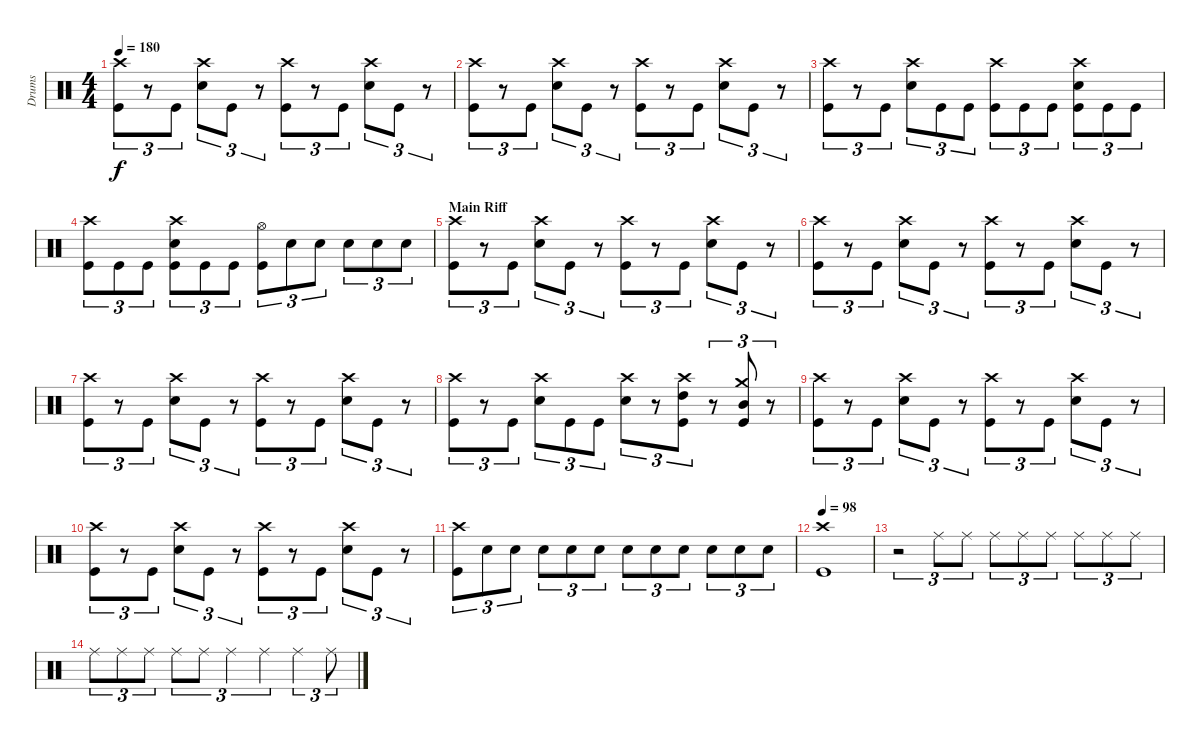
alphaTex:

\track ("Drums" "Drums") {instrument percussion}
\staff {score}
\articulation defaults
\ts (4 4)
\tempo 180
\clef neutral
\ks c
("Crash high (hit)" "Kick (hit)").8{tu (3 2) dy f} r.8{tu (3 2)} "Kick (hit)".8{tu (3 2)} ("Crash high (hit)" "Snare (hit) 2").8{tu (3 2)} "Kick (hit)".8{tu (3 2)} r.8{tu (3 2)} ("Crash high (hit)" "Kick (hit)").8{tu (3 2)} r.8{tu (3 2)} "Kick (hit)".8{tu (3 2)} ("Crash high (hit)" "Snare (hit) 2").8{tu (3 2)} "Kick (hit)".8{tu (3 2)} r.8{tu (3 2)} |
("Crash high (hit)" "Kick (hit)").8{tu (3 2)} r.8{tu (3 2)} "Kick (hit)".8{tu (3 2)} ("Crash high (hit)" "Snare (hit) 2").8{tu (3 2)} "Kick (hit)".8{tu (3 2)} r.8{tu (3 2)} ("Crash high (hit)" "Kick (hit)").8{tu (3 2)} r.8{tu (3 2)} "Kick (hit)".8{tu (3 2)} ("Crash high (hit)" "Snare (hit) 2").8{tu (3 2)} "Kick (hit)".8{tu (3 2)} r.8{tu (3 2)} |
("Crash high (hit)" "Kick (hit)").8{tu (3 2)} r.8{tu (3 2)} "Kick (hit)".8{tu (3 2)} ("Crash high (hit)" "Snare (hit) 2").8{tu (3 2)} "Kick (hit)".8{tu (3 2)} "Kick (hit)".8{tu (3 2)} ("Crash high (hit)" "Kick (hit)").8{tu (3 2)} "Kick (hit)".8{tu (3 2)} "Kick (hit)".8{tu (3 2)} ("Crash high (hit)" "Snare (hit) 2" "Kick (hit)").8{tu (3 2)} "Kick (hit)".8{tu (3 2)} "Kick (hit)".8{tu (3 2)} |
("Crash high (hit)" "Kick (hit)").8{tu (3 2)} "Kick (hit)".8{tu (3 2)} "Kick (hit)".8{tu (3 2)} ("Crash high (hit)" "Snare (hit) 2" "Kick (hit)").8{tu (3 2)} "Kick (hit)".8{tu (3 2)} "Kick (hit)".8{tu (3 2)} ("Hi-Hat (open)" "Kick (hit)").8{tu (3 2)} "Snare (hit) 2".8{tu (3 2)} "Snare (hit) 2".8{tu (3 2)} "Snare (hit) 2".8{tu (3 2)} "Snare (hit) 2".8{tu (3 2)} "Snare (hit) 2".8{tu (3 2)} |
\section ("" "Main Riff")
("Crash high (hit)" "Kick (hit)").8{tu (3 2)} r.8{tu (3 2)} "Kick (hit)".8{tu (3 2)} ("Crash high (hit)" "Snare (hit) 2").8{tu (3 2)} "Kick (hit)".8{tu (3 2)} r.8{tu (3 2)} ("Crash high (hit)" "Kick (hit)").8{tu (3 2)} r.8{tu (3 2)} "Kick (hit)".8{tu (3 2)} ("Crash high (hit)" "Snare (hit) 2").8{tu (3 2)} "Kick (hit)".8{tu (3 2)} r.8{tu (3 2)} |
("Crash high (hit)" "Kick (hit)").8{tu (3 2)} r.8{tu (3 2)} "Kick (hit)".8{tu (3 2)} ("Crash high (hit)" "Snare (hit) 2").8{tu (3 2)} "Kick (hit)".8{tu (3 2)} r.8{tu (3 2)} ("Crash high (hit)" "Kick (hit)").8{tu (3 2)} r.8{tu (3 2)} "Kick (hit)".8{tu (3 2)} ("Crash high (hit)" "Snare (hit) 2").8{tu (3 2)} "Kick (hit)".8{tu (3 2)} r.8{tu (3 2)} |
("Crash high (hit)" "Kick (hit)").8{tu (3 2)} r.8{tu (3 2)} "Kick (hit)".8{tu (3 2)} ("Crash high (hit)" "Snare (hit) 2").8{tu (3 2)} "Kick (hit)".8{tu (3 2)} r.8{tu (3 2)} ("Crash high (hit)" "Kick (hit)").8{tu (3 2)} r.8{tu (3 2)} "Kick (hit)".8{tu (3 2)} ("Crash high (hit)" "Snare (hit) 2").8{tu (3 2)} "Kick (hit)".8{tu (3 2)} r.8{tu (3 2)} |
("Crash high (hit)" "Kick (hit)").8{tu (3 2)} r.8{tu (3 2)} "Kick (hit)".8{tu (3 2)} ("Crash high (hit)" "Snare (hit) 2").8{tu (3 2)} "Kick (hit)".8{tu (3 2)} "Kick (hit)".8{tu (3 2)} ("Crash high (hit)" "Snare (hit) 2").8{tu (3 2)} r.8{tu (3 2)} ("Crash high (hit)" "High Tom (hit)" "Kick (hit)").8{tu (3 2)} r.8{tu (3 2)} ("Crash medium (hit)" "Mid Tom (hit)" "Kick (hit)").8{tu (3 2)} r.8{tu (3 2)} |
("Crash high (hit)" "Kick (hit)").8{tu (3 2)} r.8{tu (3 2)} "Kick (hit)".8{tu (3 2)} ("Crash high (hit)" "Snare (hit) 2").8{tu (3 2)} "Kick (hit)".8{tu (3 2)} r.8{tu (3 2)} ("Crash high (hit)" "Kick (hit)").8{tu (3 2)} r.8{tu (3 2)} "Kick (hit)".8{tu (3 2)} ("Crash high (hit)" "Snare (hit) 2").8{tu (3 2)} "Kick (hit)".8{tu (3 2)} r.8{tu (3 2)} |
("Crash high (hit)" "Kick (hit)").8{tu (3 2)} r.8{tu (3 2)} "Kick (hit)".8{tu (3 2)} ("Crash high (hit)" "Snare (hit) 2").8{tu (3 2)} "Kick (hit)".8{tu (3 2)} r.8{tu (3 2)} ("Crash high (hit)" "Kick (hit)").8{tu (3 2)} r.8{tu (3 2)} "Kick (hit)".8{tu (3 2)} ("Crash high (hit)" "Snare (hit) 2").8{tu (3 2)} "Kick (hit)".8{tu (3 2)} r.8{tu (3 2)} |
("Crash high (hit)" "Kick (hit)").8{tu (3 2)} "Snare (hit) 2".8{tu (3 2)} "Snare (hit) 2".8{tu (3 2)} "Snare (hit) 2".8{tu (3 2)} "Snare (hit) 2".8{tu (3 2)} "Snare (hit) 2".8{tu (3 2)} "Snare (hit) 2".8{tu (3 2)} "Snare (hit) 2".8{tu (3 2)} "Snare (hit) 2".8{tu (3 2)} "Snare (hit) 2".8{tu (3 2)} "Snare (hit) 2".8{tu (3 2)} "Snare (hit) 2".8{tu (3 2)} |
\tempo 98
("Crash high (hit)" "Kick (hit)").1 |
r.2{tu (3 2)} "Ride (middle)".8{tu (3 2)} "Ride (middle)".8{tu (3 2)} "Ride (middle)".8{tu (3 2)} "Ride (middle)".8{tu (3 2)} "Ride (middle)".8{tu (3 2)} "Ride (middle)".8{tu (3 2)} "Ride (middle)".8{tu (3 2)} "Ride (middle)".8{tu (3 2)} |
"Ride (middle)".8{tu (3 2)} "Ride (middle)".8{tu (3 2)} "Ride (middle)".8{tu (3 2)} "Ride (middle)".8{tu (3 2)} "Ride (middle)".8{tu (3 2)} "Ride (middle)".4{tu (3 2)} "Ride (middle)".4{tu (3 2)} "Ride (middle)".4{tu (3 2)} "Ride (middle)".8{tu (3 2)}
